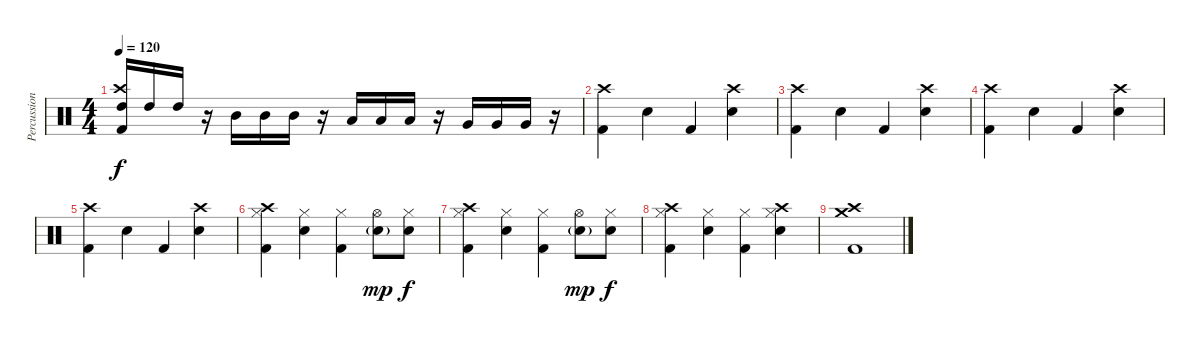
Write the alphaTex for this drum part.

\track ("Percussion" "Percussion") {instrument percussion}
\staff
\articulation defaults
\ts (4 4)
\tempo 120
\clef neutral
\ks c
("High Tom (hit)" "Crash high (hit)" "Kick (hit) 2").16{dy f} "High Tom (hit)".16 "High Tom (hit)".16 r.16 "Mid Tom (hit)".16 "Mid Tom (hit)".16 "Mid Tom (hit)".16 r.16 "Low Tom (hit)".16 "Low Tom (hit)".16 "Low Tom (hit)".16 r.16 "Very Low Tom (hit)".16 "Very Low Tom (hit)".16 "Very Low Tom (hit)".16 r.16 |
("Crash high (hit)" "Kick (hit) 2").4 "Snare (hit) 2".4 "Kick (hit) 2".4 ("Crash high (hit)" "Snare (hit) 2").4 |
("Crash high (hit)" "Kick (hit) 2").4 "Snare (hit) 2".4 "Kick (hit) 2".4 ("Crash high (hit)" "Snare (hit) 2").4 |
("Crash high (hit)" "Kick (hit) 2").4 "Snare (hit) 2".4 "Kick (hit) 2".4 ("Crash high (hit)" "Snare (hit) 2").4 |
("Crash high (hit)" "Kick (hit) 2").4 "Snare (hit) 2".4 "Kick (hit) 2".4 ("Crash high (hit)" "Snare (hit) 2").4 |
("Crash high (hit)" "Hi-Hat (closed)" "Kick (hit) 2").4 ("Hi-Hat (closed)" "Snare (hit) 2").4 ("Hi-Hat (closed)" "Kick (hit) 2").4 ("Hi-Hat (open)" "Snare (hit) 2"{g}).8{dy mp} ("Hi-Hat (closed)" "Snare (hit) 2").8{dy f} |
("Crash high (hit)" "Hi-Hat (closed)" "Kick (hit) 2").4 ("Hi-Hat (closed)" "Snare (hit) 2").4 ("Hi-Hat (closed)" "Kick (hit) 2").4 ("Hi-Hat (open)" "Snare (hit) 2"{g}).8{dy mp} ("Hi-Hat (closed)" "Snare (hit) 2").8{dy f} |
("Crash high (hit)" "Hi-Hat (closed)" "Kick (hit) 2").4 ("Hi-Hat (closed)" "Snare (hit) 2").4 ("Hi-Hat (closed)" "Kick (hit) 2").4 ("Crash high (hit)" "Hi-Hat (closed)" "Snare (hit) 2").4 |
("Crash high (hit)" "Crash medium (hit)" "Kick (hit) 2").1
